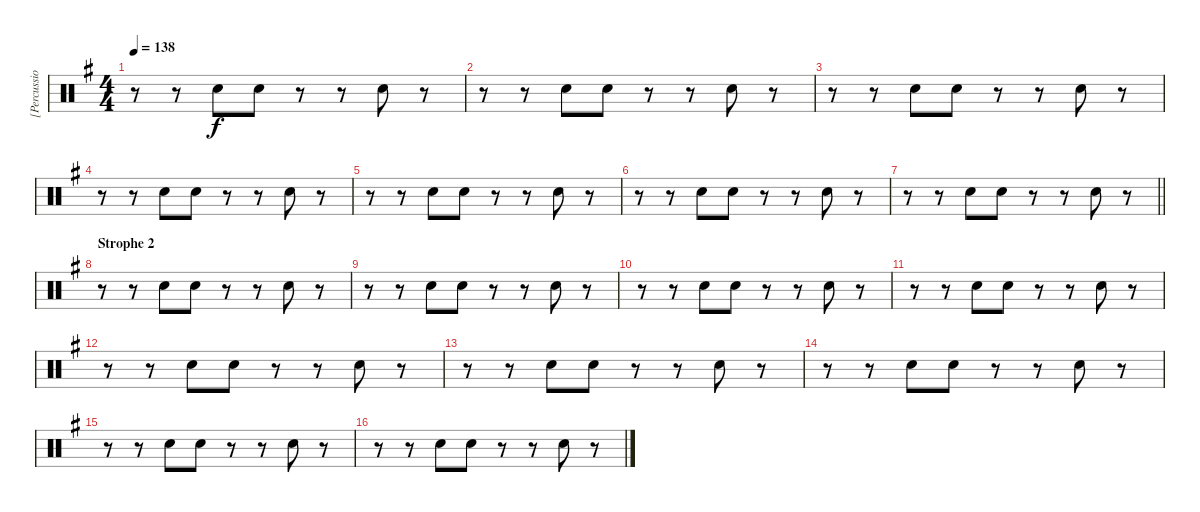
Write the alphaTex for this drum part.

\track ("[Percussion]" "[Percussio") {instrument percussion}
\staff {score}
\articulation defaults
\ts (4 4)
\tempo 138
\clef neutral
\ks eminor
r.8{dy f} r.8 "Hand Clap (hit)".8 "Hand Clap (hit)".8 r.8 r.8 "Hand Clap (hit)".8 r.8 |
r.8 r.8 "Hand Clap (hit)".8 "Hand Clap (hit)".8 r.8 r.8 "Hand Clap (hit)".8 r.8 |
r.8 r.8 "Hand Clap (hit)".8 "Hand Clap (hit)".8 r.8 r.8 "Hand Clap (hit)".8 r.8 |
r.8 r.8 "Hand Clap (hit)".8 "Hand Clap (hit)".8 r.8 r.8 "Hand Clap (hit)".8 r.8 |
r.8 r.8 "Hand Clap (hit)".8 "Hand Clap (hit)".8 r.8 r.8 "Hand Clap (hit)".8 r.8 |
r.8 r.8 "Hand Clap (hit)".8 "Hand Clap (hit)".8 r.8 r.8 "Hand Clap (hit)".8 r.8 |
\barLineRight lightlight
r.8 r.8 "Hand Clap (hit)".8 "Hand Clap (hit)".8 r.8 r.8 "Hand Clap (hit)".8 r.8 |
\section ("" "Strophe 2")
r.8 r.8 "Hand Clap (hit)".8 "Hand Clap (hit)".8 r.8 r.8 "Hand Clap (hit)".8 r.8 |
r.8 r.8 "Hand Clap (hit)".8 "Hand Clap (hit)".8 r.8 r.8 "Hand Clap (hit)".8 r.8 |
r.8 r.8 "Hand Clap (hit)".8 "Hand Clap (hit)".8 r.8 r.8 "Hand Clap (hit)".8 r.8 |
r.8 r.8 "Hand Clap (hit)".8 "Hand Clap (hit)".8 r.8 r.8 "Hand Clap (hit)".8 r.8 |
r.8 r.8 "Hand Clap (hit)".8 "Hand Clap (hit)".8 r.8 r.8 "Hand Clap (hit)".8 r.8 |
r.8 r.8 "Hand Clap (hit)".8 "Hand Clap (hit)".8 r.8 r.8 "Hand Clap (hit)".8 r.8 |
r.8 r.8 "Hand Clap (hit)".8 "Hand Clap (hit)".8 r.8 r.8 "Hand Clap (hit)".8 r.8 |
r.8 r.8 "Hand Clap (hit)".8 "Hand Clap (hit)".8 r.8 r.8 "Hand Clap (hit)".8 r.8 |
r.8 r.8 "Hand Clap (hit)".8 "Hand Clap (hit)".8 r.8 r.8 "Hand Clap (hit)".8 r.8
